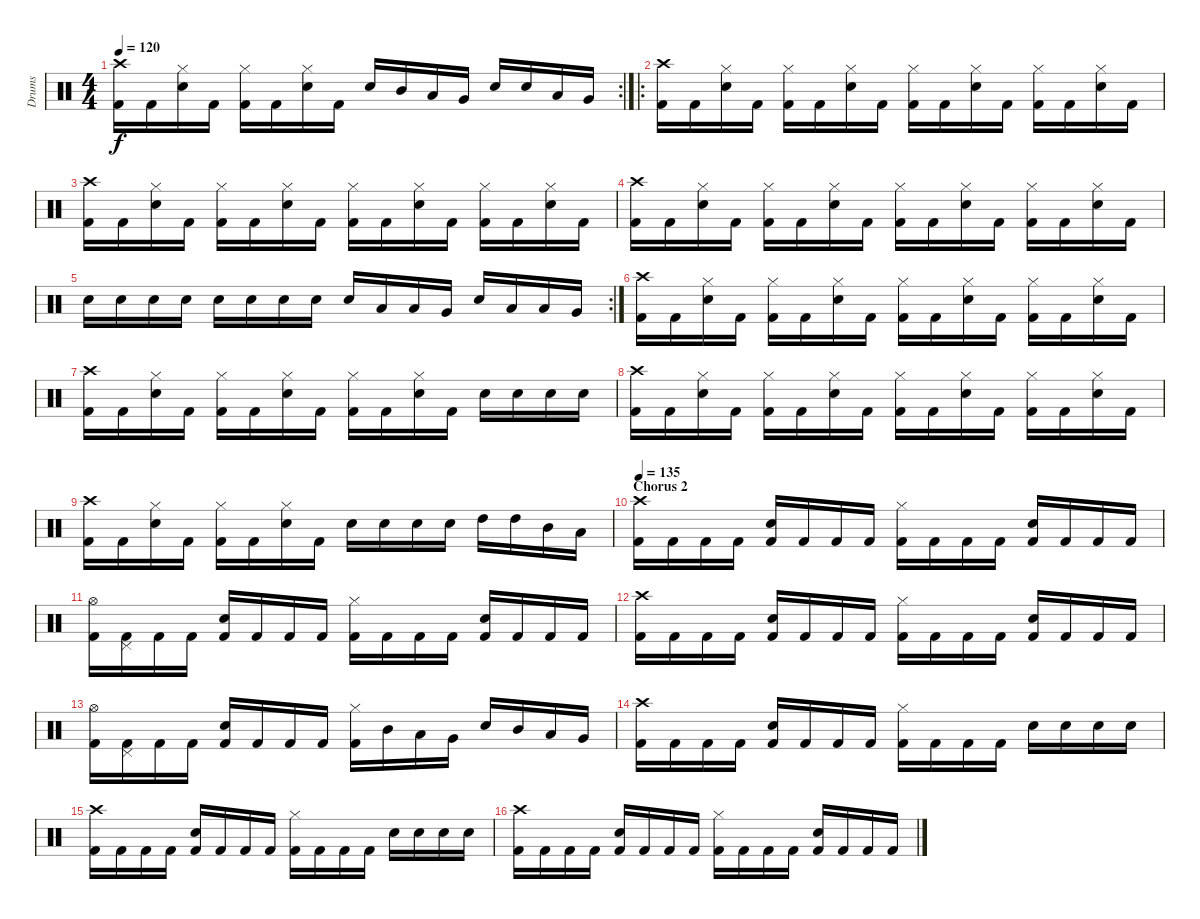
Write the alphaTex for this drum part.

\track ("Drums" "Drums") {instrument percussion}
\staff {score}
\articulation defaults
\rc 2
\ts (4 4)
\tempo 120
\clef neutral
\ks c
("Kick (hit) 2" "Crash high (hit)").16{dy f} "Kick (hit) 2".16 ("Electric Snare (hit)" "Hi-Hat (closed)").16 "Kick (hit) 2".16 ("Kick (hit) 2" "Hi-Hat (closed)").16 "Kick (hit) 2".16 ("Electric Snare (hit)" "Hi-Hat (closed)").16 "Kick (hit) 2".16 "Electric Snare (hit)".16 "Mid Tom (hit)".16 "Low Tom (hit)".16 "Very Low Tom (hit)".16 "Electric Snare (hit)".16 "Electric Snare (hit)".16 "Low Tom (hit)".16 "Very Low Tom (hit)".16 |
\ro
("Kick (hit) 2" "Crash high (hit)").16 "Kick (hit) 2".16 ("Electric Snare (hit)" "Hi-Hat (closed)").16 "Kick (hit) 2".16 ("Kick (hit) 2" "Hi-Hat (closed)").16 "Kick (hit) 2".16 ("Electric Snare (hit)" "Hi-Hat (closed)").16 "Kick (hit) 2".16 ("Kick (hit) 2" "Hi-Hat (closed)").16 "Kick (hit) 2".16 ("Electric Snare (hit)" "Hi-Hat (closed)").16 "Kick (hit) 2".16 ("Kick (hit) 2" "Hi-Hat (closed)").16 "Kick (hit) 2".16 ("Electric Snare (hit)" "Hi-Hat (closed)").16 "Kick (hit) 2".16 |
("Kick (hit) 2" "Crash high (hit)").16 "Kick (hit) 2".16 ("Electric Snare (hit)" "Hi-Hat (closed)").16 "Kick (hit) 2".16 ("Kick (hit) 2" "Hi-Hat (closed)").16 "Kick (hit) 2".16 ("Electric Snare (hit)" "Hi-Hat (closed)").16 "Kick (hit) 2".16 ("Kick (hit) 2" "Hi-Hat (closed)").16 "Kick (hit) 2".16 ("Electric Snare (hit)" "Hi-Hat (closed)").16 "Kick (hit) 2".16 ("Kick (hit) 2" "Hi-Hat (closed)").16 "Kick (hit) 2".16 ("Electric Snare (hit)" "Hi-Hat (closed)").16 "Kick (hit) 2".16 |
("Kick (hit) 2" "Crash high (hit)").16 "Kick (hit) 2".16 ("Electric Snare (hit)" "Hi-Hat (closed)").16 "Kick (hit) 2".16 ("Kick (hit) 2" "Hi-Hat (closed)").16 "Kick (hit) 2".16 ("Electric Snare (hit)" "Hi-Hat (closed)").16 "Kick (hit) 2".16 ("Kick (hit) 2" "Hi-Hat (closed)").16 "Kick (hit) 2".16 ("Electric Snare (hit)" "Hi-Hat (closed)").16 "Kick (hit) 2".16 ("Kick (hit) 2" "Hi-Hat (closed)").16 "Kick (hit) 2".16 ("Electric Snare (hit)" "Hi-Hat (closed)").16 "Kick (hit) 2".16 |
\rc 2 "Electric Snare (hit)".16 "Electric Snare (hit)".16 "Electric Snare (hit)".16 "Electric Snare (hit)".16 "Electric Snare (hit)".16 "Electric Snare (hit)".16 "Electric Snare (hit)".16 "Electric Snare (hit)".16 "Electric Snare (hit)".16 "Low Tom (hit)".16 "Low Tom (hit)".16 "Very Low Tom (hit)".16 "Electric Snare (hit)".16 "Low Tom (hit)".16 "Low Tom (hit)".16 "Very Low Tom (hit)".16
|
("Kick (hit) 2" "Crash high (hit)").16 "Kick (hit) 2".16 ("Electric Snare (hit)" "Hi-Hat (closed)").16 "Kick (hit) 2".16 ("Kick (hit) 2" "Hi-Hat (closed)").16 "Kick (hit) 2".16 ("Electric Snare (hit)" "Hi-Hat (closed)").16 "Kick (hit) 2".16 ("Kick (hit) 2" "Hi-Hat (closed)").16 "Kick (hit) 2".16 ("Electric Snare (hit)" "Hi-Hat (closed)").16 "Kick (hit) 2".16 ("Kick (hit) 2" "Hi-Hat (closed)").16 "Kick (hit) 2".16 ("Electric Snare (hit)" "Hi-Hat (closed)").16 "Kick (hit) 2".16 |
("Kick (hit) 2" "Crash high (hit)").16 "Kick (hit) 2".16 ("Electric Snare (hit)" "Hi-Hat (closed)").16 "Kick (hit) 2".16 ("Kick (hit) 2" "Hi-Hat (closed)").16 "Kick (hit) 2".16 ("Electric Snare (hit)" "Hi-Hat (closed)").16 "Kick (hit) 2".16 ("Kick (hit) 2" "Hi-Hat (closed)").16 "Kick (hit) 2".16 ("Electric Snare (hit)" "Hi-Hat (closed)").16 "Kick (hit) 2".16 "Electric Snare (hit)".16 "Electric Snare (hit)".16 "Electric Snare (hit)".16 "Electric Snare (hit)".16 |
("Kick (hit) 2" "Crash high (hit)").16 "Kick (hit) 2".16 ("Electric Snare (hit)" "Hi-Hat (closed)").16 "Kick (hit) 2".16 ("Kick (hit) 2" "Hi-Hat (closed)").16 "Kick (hit) 2".16 ("Electric Snare (hit)" "Hi-Hat (closed)").16 "Kick (hit) 2".16 ("Kick (hit) 2" "Hi-Hat (closed)").16 "Kick (hit) 2".16 ("Electric Snare (hit)" "Hi-Hat (closed)").16 "Kick (hit) 2".16 ("Kick (hit) 2" "Hi-Hat (closed)").16 "Kick (hit) 2".16 ("Electric Snare (hit)" "Hi-Hat (closed)").16 "Kick (hit) 2".16 |
("Kick (hit) 2" "Crash high (hit)").16 "Kick (hit) 2".16 ("Electric Snare (hit)" "Hi-Hat (closed)").16 "Kick (hit) 2".16 ("Kick (hit) 2" "Hi-Hat (closed)").16 "Kick (hit) 2".16 ("Electric Snare (hit)" "Hi-Hat (closed)").16 "Kick (hit) 2".16 "Electric Snare (hit)".16 "Electric Snare (hit)".16 "Electric Snare (hit)".16 "Electric Snare (hit)".16 "High Tom (hit)".16 "High Tom (hit)".16 "Mid Tom (hit)".16 "Low Tom (hit)".16 |
\section ("" "Chorus 2")
\tempo 135
("Kick (hit) 2" "Crash high (hit)").16 "Kick (hit) 2".16 "Kick (hit) 2".16 "Kick (hit) 2".16 ("Kick (hit) 2" "Electric Snare (hit)").16 "Kick (hit) 2".16 "Kick (hit) 2".16 "Kick (hit) 2".16 ("Kick (hit) 2" "Hi-Hat (closed)").16 "Kick (hit) 2".16 "Kick (hit) 2".16 "Kick (hit) 2".16 ("Kick (hit) 2" "Electric Snare (hit)").16 "Kick (hit) 2".16 "Kick (hit) 2".16 "Kick (hit) 2".16 |
("Kick (hit) 2" "Hi-Hat (open)").16 ("Kick (hit) 2" "Pedal Hi-Hat (hit)").16 "Kick (hit) 2".16 "Kick (hit) 2".16 ("Kick (hit) 2" "Electric Snare (hit)").16 "Kick (hit) 2".16 "Kick (hit) 2".16 "Kick (hit) 2".16 ("Kick (hit) 2" "Hi-Hat (closed)").16 "Kick (hit) 2".16 "Kick (hit) 2".16 "Kick (hit) 2".16 ("Kick (hit) 2" "Electric Snare (hit)").16 "Kick (hit) 2".16 "Kick (hit) 2".16 "Kick (hit) 2".16 |
("Kick (hit) 2" "Crash high (hit)").16 "Kick (hit) 2".16 "Kick (hit) 2".16 "Kick (hit) 2".16 ("Kick (hit) 2" "Electric Snare (hit)").16 "Kick (hit) 2".16 "Kick (hit) 2".16 "Kick (hit) 2".16 ("Kick (hit) 2" "Hi-Hat (closed)").16 "Kick (hit) 2".16 "Kick (hit) 2".16 "Kick (hit) 2".16 ("Kick (hit) 2" "Electric Snare (hit)").16 "Kick (hit) 2".16 "Kick (hit) 2".16 "Kick (hit) 2".16 |
("Kick (hit) 2" "Hi-Hat (open)").16 ("Kick (hit) 2" "Pedal Hi-Hat (hit)").16 "Kick (hit) 2".16 "Kick (hit) 2".16 ("Kick (hit) 2" "Electric Snare (hit)").16 "Kick (hit) 2".16 "Kick (hit) 2".16 "Kick (hit) 2".16 ("Kick (hit) 2" "Hi-Hat (closed)").16 "Mid Tom (hit)".16 "Low Tom (hit)".16 "Very Low Tom (hit)".16 "Electric Snare (hit)".16 "Mid Tom (hit)".16 "Low Tom (hit)".16 "Very Low Tom (hit)".16 |
("Kick (hit) 2" "Crash high (hit)").16 "Kick (hit) 2".16 "Kick (hit) 2".16 "Kick (hit) 2".16 ("Kick (hit) 2" "Electric Snare (hit)").16 "Kick (hit) 2".16 "Kick (hit) 2".16 "Kick (hit) 2".16 ("Kick (hit) 2" "Hi-Hat (closed)").16 "Kick (hit) 2".16 "Kick (hit) 2".16 "Kick (hit) 2".16 "Electric Snare (hit)".16 "Electric Snare (hit)".16 "Electric Snare (hit)".16 "Electric Snare (hit)".16 |
("Kick (hit) 2" "Crash high (hit)").16 "Kick (hit) 2".16 "Kick (hit) 2".16 "Kick (hit) 2".16 ("Kick (hit) 2" "Electric Snare (hit)").16 "Kick (hit) 2".16 "Kick (hit) 2".16 "Kick (hit) 2".16 ("Kick (hit) 2" "Hi-Hat (closed)").16 "Kick (hit) 2".16 "Kick (hit) 2".16 "Kick (hit) 2".16 "Electric Snare (hit)".16 "Electric Snare (hit)".16 "Electric Snare (hit)".16 "Electric Snare (hit)".16 |
("Kick (hit) 2" "Crash high (hit)").16 "Kick (hit) 2".16 "Kick (hit) 2".16 "Kick (hit) 2".16 ("Kick (hit) 2" "Electric Snare (hit)").16 "Kick (hit) 2".16 "Kick (hit) 2".16 "Kick (hit) 2".16 ("Kick (hit) 2" "Hi-Hat (closed)").16 "Kick (hit) 2".16 "Kick (hit) 2".16 "Kick (hit) 2".16 ("Kick (hit) 2" "Electric Snare (hit)").16 "Kick (hit) 2".16 "Kick (hit) 2".16 "Kick (hit) 2".16
